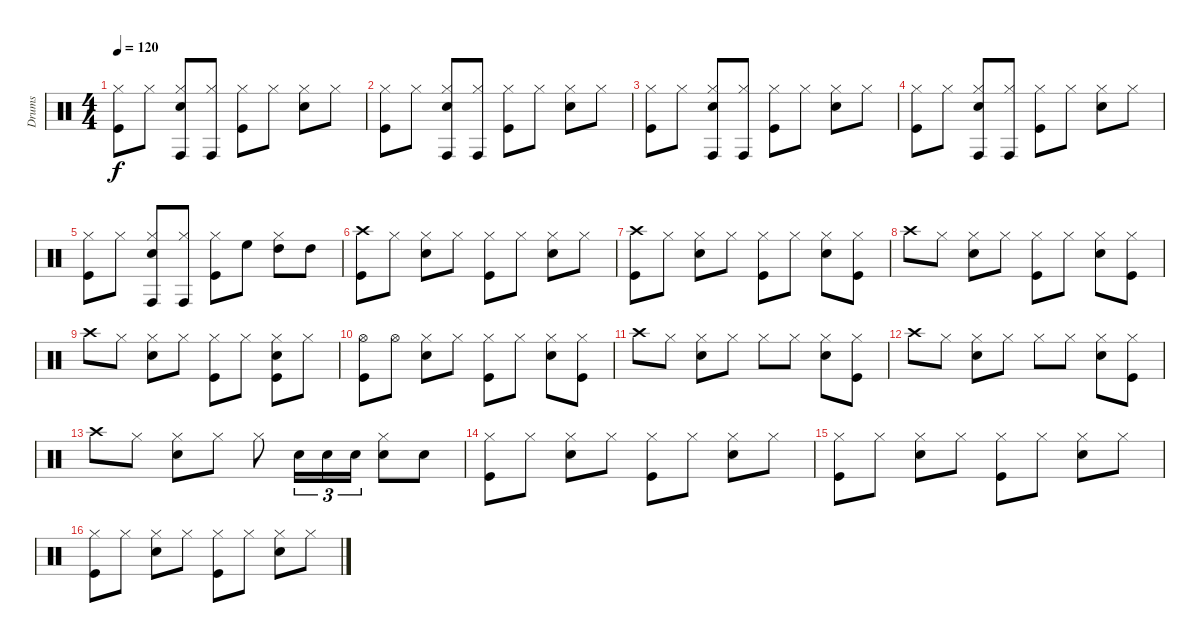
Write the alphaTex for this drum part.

\track ("Drums" "Drums") {instrument percussion}
\staff {score}
\articulation defaults
\ts (4 4)
\tempo 120
\clef neutral
\ks c
("Hi-Hat (closed)" "Kick (hit)").8{dy f} "Hi-Hat (closed)".8 ("Hi-Hat (closed)" "Conga high (hit)" "Snare (hit) 2").8 ("Hi-Hat (closed)" "Conga high (hit)").8 ("Hi-Hat (closed)" "Kick (hit)").8 "Hi-Hat (closed)".8 ("Hi-Hat (closed)" "Snare (hit) 2").8 "Hi-Hat (closed)".8 |
("Hi-Hat (closed)" "Kick (hit)").8 "Hi-Hat (closed)".8 ("Hi-Hat (closed)" "Conga high (hit)" "Snare (hit) 2").8 ("Hi-Hat (closed)" "Conga high (hit)").8 ("Hi-Hat (closed)" "Kick (hit)").8 "Hi-Hat (closed)".8 ("Hi-Hat (closed)" "Snare (hit) 2").8 "Hi-Hat (closed)".8 |
("Hi-Hat (closed)" "Kick (hit)").8 "Hi-Hat (closed)".8 ("Hi-Hat (closed)" "Conga high (hit)" "Snare (hit) 2").8 ("Hi-Hat (closed)" "Conga high (hit)").8 ("Hi-Hat (closed)" "Kick (hit)").8 "Hi-Hat (closed)".8 ("Hi-Hat (closed)" "Snare (hit) 2").8 "Hi-Hat (closed)".8 |
("Hi-Hat (closed)" "Kick (hit)").8 "Hi-Hat (closed)".8 ("Hi-Hat (closed)" "Conga high (hit)" "Snare (hit) 2").8 ("Hi-Hat (closed)" "Conga high (hit)").8 ("Hi-Hat (closed)" "Kick (hit)").8 "Hi-Hat (closed)".8 ("Hi-Hat (closed)" "Snare (hit) 2").8 "Hi-Hat (closed)".8 |
("Hi-Hat (closed)" "Kick (hit)").8 "Hi-Hat (closed)".8 ("Hi-Hat (closed)" "Conga high (hit)" "Snare (hit) 2").8 ("Hi-Hat (closed)" "Conga high (hit)").8 ("Hi-Hat (closed)" "Kick (hit)").8 "High Floor Tom (hit)".8 ("Hi-Hat (closed)" "High Tom (hit)").8 "High Tom (hit)".8 |
("Crash high (hit)" "Kick (hit)").8 "Hi-Hat (closed)".8 ("Hi-Hat (closed)" "Snare (hit) 2").8 "Hi-Hat (closed)".8 ("Hi-Hat (closed)" "Kick (hit)").8 "Hi-Hat (closed)".8 ("Hi-Hat (closed)" "Snare (hit) 2").8 "Hi-Hat (closed)".8 |
("Crash high (hit)" "Kick (hit)").8 "Hi-Hat (closed)".8 ("Hi-Hat (closed)" "Snare (hit) 2").8 "Hi-Hat (closed)".8 ("Hi-Hat (closed)" "Kick (hit)").8 "Hi-Hat (closed)".8 ("Hi-Hat (closed)" "Snare (hit) 2").8 ("Hi-Hat (closed)" "Kick (hit)").8 |
"Crash high (hit)".8 "Hi-Hat (closed)".8 ("Hi-Hat (closed)" "Snare (hit) 2").8 "Hi-Hat (closed)".8 ("Hi-Hat (closed)" "Kick (hit)").8 "Hi-Hat (closed)".8 ("Hi-Hat (closed)" "Snare (hit) 2").8 ("Hi-Hat (closed)" "Kick (hit)").8 |
"Crash high (hit)".8 "Hi-Hat (closed)".8 ("Hi-Hat (closed)" "Snare (hit) 2").8 "Hi-Hat (closed)".8 ("Hi-Hat (closed)" "Kick (hit)").8 "Hi-Hat (closed)".8 ("Hi-Hat (closed)" "Snare (hit) 2" "Kick (hit)").8 "Hi-Hat (closed)".8 |
("Hi-Hat (open)" "Kick (hit)").8 "Hi-Hat (open)".8 ("Hi-Hat (closed)" "Snare (hit) 2").8 "Hi-Hat (closed)".8 ("Hi-Hat (closed)" "Kick (hit)").8 "Hi-Hat (closed)".8 ("Hi-Hat (closed)" "Snare (hit) 2").8 ("Hi-Hat (closed)" "Kick (hit)").8 |
"Crash high (hit)".8 "Hi-Hat (closed)".8 ("Hi-Hat (closed)" "Snare (hit) 2").8 "Hi-Hat (closed)".8 "Hi-Hat (closed)".8 "Hi-Hat (closed)".8 ("Hi-Hat (closed)" "Snare (hit) 2").8 ("Hi-Hat (closed)" "Kick (hit)").8 |
"Crash high (hit)".8 "Hi-Hat (closed)".8 ("Hi-Hat (closed)" "Snare (hit) 2").8 "Hi-Hat (closed)".8 "Hi-Hat (closed)".8 "Hi-Hat (closed)".8 ("Hi-Hat (closed)" "Snare (hit) 2").8 ("Hi-Hat (closed)" "Kick (hit)").8 |
"Crash high (hit)".8 "Hi-Hat (closed)".8 ("Hi-Hat (closed)" "Snare (hit) 2").8 "Hi-Hat (closed)".8 "Hi-Hat (closed)".8 "Snare (hit) 2".16{tu (3 2)} "Snare (hit) 2".16{tu (3 2)} "Snare (hit) 2".16{tu (3 2)} ("Hi-Hat (closed)" "Snare (hit) 2").8 "Snare (hit) 2".8 |
("Hi-Hat (closed)" "Kick (hit)").8 "Hi-Hat (closed)".8 ("Hi-Hat (closed)" "Snare (hit) 2").8 "Hi-Hat (closed)".8 ("Hi-Hat (closed)" "Kick (hit)").8 "Hi-Hat (closed)".8 ("Hi-Hat (closed)" "Snare (hit) 2").8 "Hi-Hat (closed)".8 |
("Hi-Hat (closed)" "Kick (hit)").8 "Hi-Hat (closed)".8 ("Hi-Hat (closed)" "Snare (hit) 2").8 "Hi-Hat (closed)".8 ("Hi-Hat (closed)" "Kick (hit)").8 "Hi-Hat (closed)".8 ("Hi-Hat (closed)" "Snare (hit) 2").8 "Hi-Hat (closed)".8 |
("Hi-Hat (closed)" "Kick (hit)").8 "Hi-Hat (closed)".8 ("Hi-Hat (closed)" "Snare (hit) 2").8 "Hi-Hat (closed)".8 ("Hi-Hat (closed)" "Kick (hit)").8 "Hi-Hat (closed)".8 ("Hi-Hat (closed)" "Snare (hit) 2").8 "Hi-Hat (closed)".8
